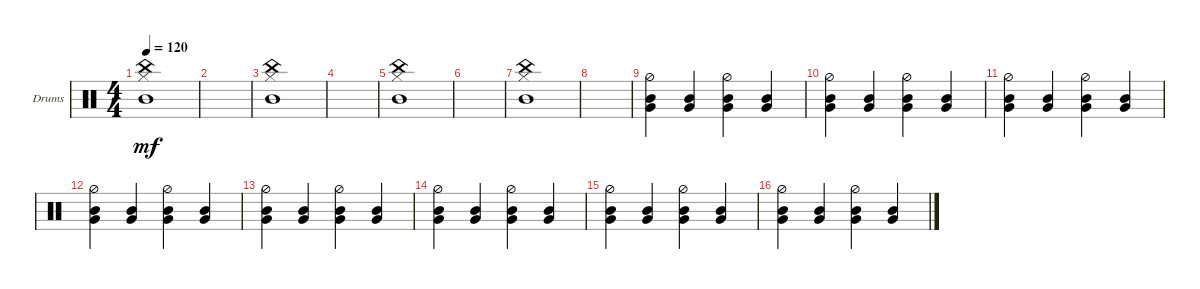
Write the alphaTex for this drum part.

\defaultSystemsLayout 4
\bracketExtendMode groupsimilarinstruments
\firstSystemTrackNameOrientation horizontal
\otherSystemsTrackNameOrientation horizontal
\track ("Drumkit" "Drums") {instrument percussion}
\staff {score}
\articulation defaults
\ts (4 4)
\tempo 120
\clef neutral
\ks c
("Mid Tom (hit)" "China (hit)" "Hi-Hat (closed)").1{dy mf} |
|
("Mid Tom (hit)" "China (hit)" "Hi-Hat (closed)").1 |
|
("Mid Tom (hit)" "China (hit)" "Hi-Hat (closed)").1 |
|
("Mid Tom (hit)" "China (hit)" "Hi-Hat (closed)").1 |
|
("Mid Tom (hit)" "Very Low Tom (hit)" "Hi-Hat (half)").4 ("Mid Tom (hit)" "Very Low Tom (hit)").4 ("Mid Tom (hit)" "Very Low Tom (hit)" "Hi-Hat (half)").4 ("Mid Tom (hit)" "Very Low Tom (hit)").4 |
("Mid Tom (hit)" "Very Low Tom (hit)" "Hi-Hat (half)").4 ("Mid Tom (hit)" "Very Low Tom (hit)").4 ("Mid Tom (hit)" "Very Low Tom (hit)" "Hi-Hat (half)").4 ("Mid Tom (hit)" "Very Low Tom (hit)").4 |
("Mid Tom (hit)" "Very Low Tom (hit)" "Hi-Hat (half)").4 ("Mid Tom (hit)" "Very Low Tom (hit)").4 ("Mid Tom (hit)" "Very Low Tom (hit)" "Hi-Hat (half)").4 ("Mid Tom (hit)" "Very Low Tom (hit)").4 |
("Mid Tom (hit)" "Very Low Tom (hit)" "Hi-Hat (half)").4 ("Mid Tom (hit)" "Very Low Tom (hit)").4 ("Mid Tom (hit)" "Very Low Tom (hit)" "Hi-Hat (half)").4 ("Mid Tom (hit)" "Very Low Tom (hit)").4 |
("Mid Tom (hit)" "Very Low Tom (hit)" "Hi-Hat (half)").4 ("Mid Tom (hit)" "Very Low Tom (hit)").4 ("Mid Tom (hit)" "Very Low Tom (hit)" "Hi-Hat (half)").4 ("Mid Tom (hit)" "Very Low Tom (hit)").4 |
("Mid Tom (hit)" "Very Low Tom (hit)" "Hi-Hat (half)").4 ("Mid Tom (hit)" "Very Low Tom (hit)").4 ("Mid Tom (hit)" "Very Low Tom (hit)" "Hi-Hat (half)").4 ("Mid Tom (hit)" "Very Low Tom (hit)").4 |
("Mid Tom (hit)" "Very Low Tom (hit)" "Hi-Hat (half)").4 ("Mid Tom (hit)" "Very Low Tom (hit)").4 ("Mid Tom (hit)" "Very Low Tom (hit)" "Hi-Hat (half)").4 ("Mid Tom (hit)" "Very Low Tom (hit)").4 |
("Mid Tom (hit)" "Very Low Tom (hit)" "Hi-Hat (half)").4 ("Mid Tom (hit)" "Very Low Tom (hit)").4 ("Mid Tom (hit)" "Very Low Tom (hit)" "Hi-Hat (half)").4 ("Mid Tom (hit)" "Very Low Tom (hit)").4
